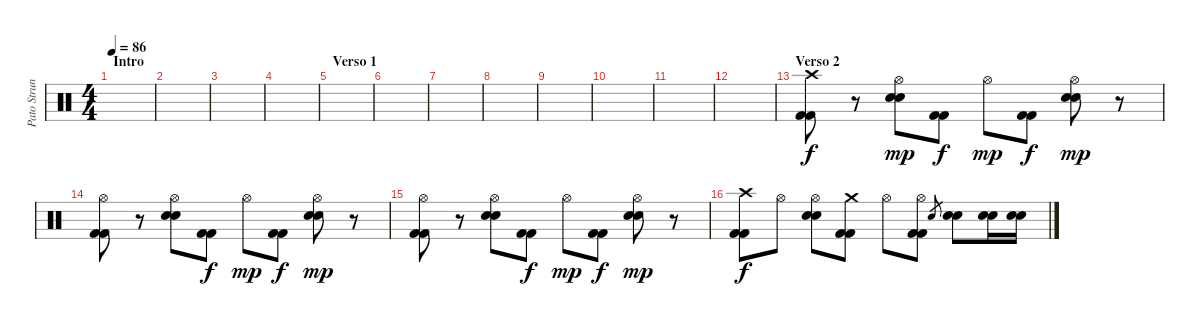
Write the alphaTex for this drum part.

\track ("Pato Strunz (Bateria)" "Pato Strun") {instrument percussion}
\staff {score}
\articulation defaults
\ts (4 4)
\section ("" "Intro")
\tempo 86
\clef neutral
\ks c
|
|
|
|
\section ("" "Verso 1")
|
|
|
|
|
|
|
|
\section ("" "Verso 2")
("Crash high (hit)" "Kick (hit) 2" "Kick (hit) 2").8 r.8 ("Hi-Hat (open)" "Snare (hit) 2" "Snare (hit) 2").8{dy mp} ("Kick (hit) 2" "Kick (hit) 2").8{dy f} "Hi-Hat (open)".8{dy mp} ("Kick (hit) 2" "Kick (hit) 2").8{dy f} ("Hi-Hat (open)" "Snare (hit) 2" "Snare (hit) 2").8{dy mp} r.8 |
("Hi-Hat (open)" "Kick (hit) 2" "Kick (hit) 2").8 r.8 ("Hi-Hat (open)" "Snare (hit) 2" "Snare (hit) 2").8 ("Kick (hit) 2" "Kick (hit) 2").8{dy f} "Hi-Hat (open)".8{dy mp} ("Kick (hit) 2" "Kick (hit) 2").8{dy f} ("Hi-Hat (open)" "Snare (hit) 2" "Snare (hit) 2").8{dy mp} r.8 |
("Hi-Hat (open)" "Kick (hit) 2" "Kick (hit) 2").8 r.8 ("Hi-Hat (open)" "Snare (hit) 2" "Snare (hit) 2").8 ("Kick (hit) 2" "Kick (hit) 2").8{dy f} "Hi-Hat (open)".8{dy mp} ("Kick (hit) 2" "Kick (hit) 2").8{dy f} ("Hi-Hat (open)" "Snare (hit) 2" "Snare (hit) 2").8{dy mp} r.8 |
("Crash high (hit)" "Kick (hit) 2" "Kick (hit) 2").8{dy f} "Hi-Hat (open)".8 ("Hi-Hat (open)" "Snare (hit) 2" "Snare (hit) 2").8 ("Crash medium (hit)" "Kick (hit) 2" "Kick (hit) 2").8 "Hi-Hat (open)".8 ("Hi-Hat (open)" "Kick (hit) 2" "Kick (hit) 2").8 "Snare (hit) 2".8{gr} ("Snare (hit) 2" "Snare (hit) 2").8 ("Snare (hit) 2" "Snare (hit) 2").16 ("Snare (hit) 2" "Snare (hit) 2").16
